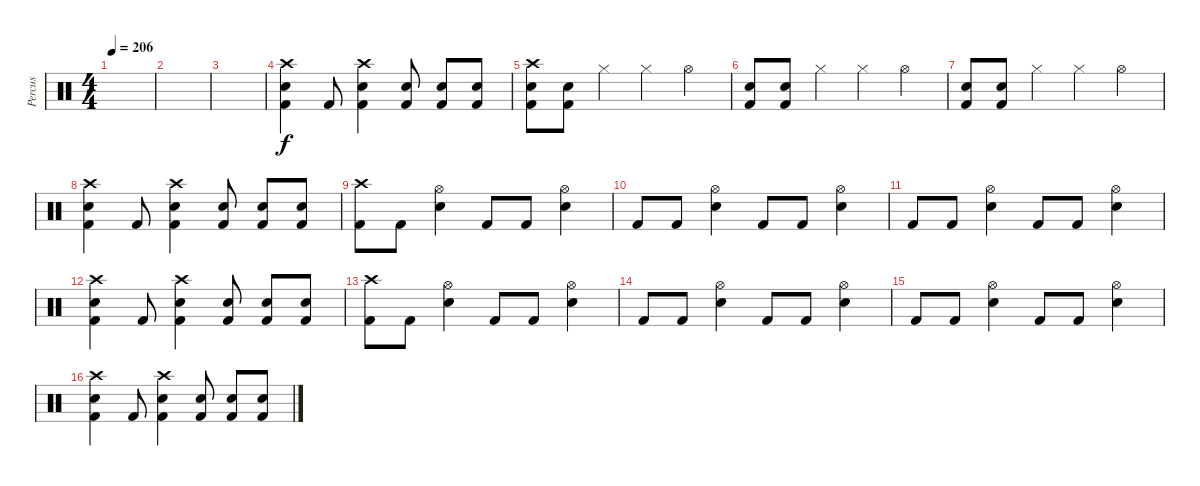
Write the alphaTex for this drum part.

\track ("Percus" "Percus") {instrument percussion}
\staff {score}
\articulation defaults
\ts (4 4)
\tempo 206
\clef neutral
\ks c
|
|
|
("Crash high (hit)" "Snare (hit) 2" "Kick (hit) 2").4 "Kick (hit) 2".8 ("Crash high (hit)" "Snare (hit) 2" "Kick (hit) 2").4 ("Snare (hit) 2" "Kick (hit) 2").8 ("Snare (hit) 2" "Kick (hit) 2").8 ("Snare (hit) 2" "Kick (hit) 2").8 |
("Crash high (hit)" "Snare (hit) 2" "Kick (hit) 2").8 ("Snare (hit) 2" "Kick (hit) 2").8 "Hi-Hat (closed)".4 "Hi-Hat (closed)".4 "Hi-Hat (open)".4 |
("Snare (hit) 2" "Kick (hit) 2").8 ("Snare (hit) 2" "Kick (hit) 2").8 "Hi-Hat (closed)".4 "Hi-Hat (closed)".4 "Hi-Hat (open)".4 |
("Snare (hit) 2" "Kick (hit) 2").8 ("Snare (hit) 2" "Kick (hit) 2").8 "Hi-Hat (closed)".4 "Hi-Hat (closed)".4 "Hi-Hat (open)".4 |
("Crash high (hit)" "Snare (hit) 2" "Kick (hit) 2").4 "Kick (hit) 2".8 ("Crash high (hit)" "Snare (hit) 2" "Kick (hit) 2").4 ("Snare (hit) 2" "Kick (hit) 2").8 ("Snare (hit) 2" "Kick (hit) 2").8 ("Snare (hit) 2" "Kick (hit) 2").8 |
("Crash high (hit)" "Kick (hit) 2").8 "Kick (hit) 2".8 ("Hi-Hat (open)" "Snare (hit) 2").4 "Kick (hit) 2".8 "Kick (hit) 2".8 ("Hi-Hat (open)" "Snare (hit) 2").4 |
"Kick (hit) 2".8 "Kick (hit) 2".8 ("Hi-Hat (open)" "Snare (hit) 2").4 "Kick (hit) 2".8 "Kick (hit) 2".8 ("Hi-Hat (open)" "Snare (hit) 2").4 |
"Kick (hit) 2".8 "Kick (hit) 2".8 ("Hi-Hat (open)" "Snare (hit) 2").4 "Kick (hit) 2".8 "Kick (hit) 2".8 ("Hi-Hat (open)" "Snare (hit) 2").4 |
("Crash high (hit)" "Snare (hit) 2" "Kick (hit) 2").4 "Kick (hit) 2".8 ("Crash high (hit)" "Snare (hit) 2" "Kick (hit) 2").4 ("Snare (hit) 2" "Kick (hit) 2").8 ("Snare (hit) 2" "Kick (hit) 2").8 ("Snare (hit) 2" "Kick (hit) 2").8 |
("Crash high (hit)" "Kick (hit) 2").8 "Kick (hit) 2".8 ("Hi-Hat (open)" "Snare (hit) 2").4 "Kick (hit) 2".8 "Kick (hit) 2".8 ("Hi-Hat (open)" "Snare (hit) 2").4 |
"Kick (hit) 2".8 "Kick (hit) 2".8 ("Hi-Hat (open)" "Snare (hit) 2").4 "Kick (hit) 2".8 "Kick (hit) 2".8 ("Hi-Hat (open)" "Snare (hit) 2").4 |
"Kick (hit) 2".8 "Kick (hit) 2".8 ("Hi-Hat (open)" "Snare (hit) 2").4 "Kick (hit) 2".8 "Kick (hit) 2".8 ("Hi-Hat (open)" "Snare (hit) 2").4 |
("Crash high (hit)" "Snare (hit) 2" "Kick (hit) 2").4 "Kick (hit) 2".8 ("Crash high (hit)" "Snare (hit) 2" "Kick (hit) 2").4 ("Snare (hit) 2" "Kick (hit) 2").8 ("Snare (hit) 2" "Kick (hit) 2").8 ("Snare (hit) 2" "Kick (hit) 2").8
